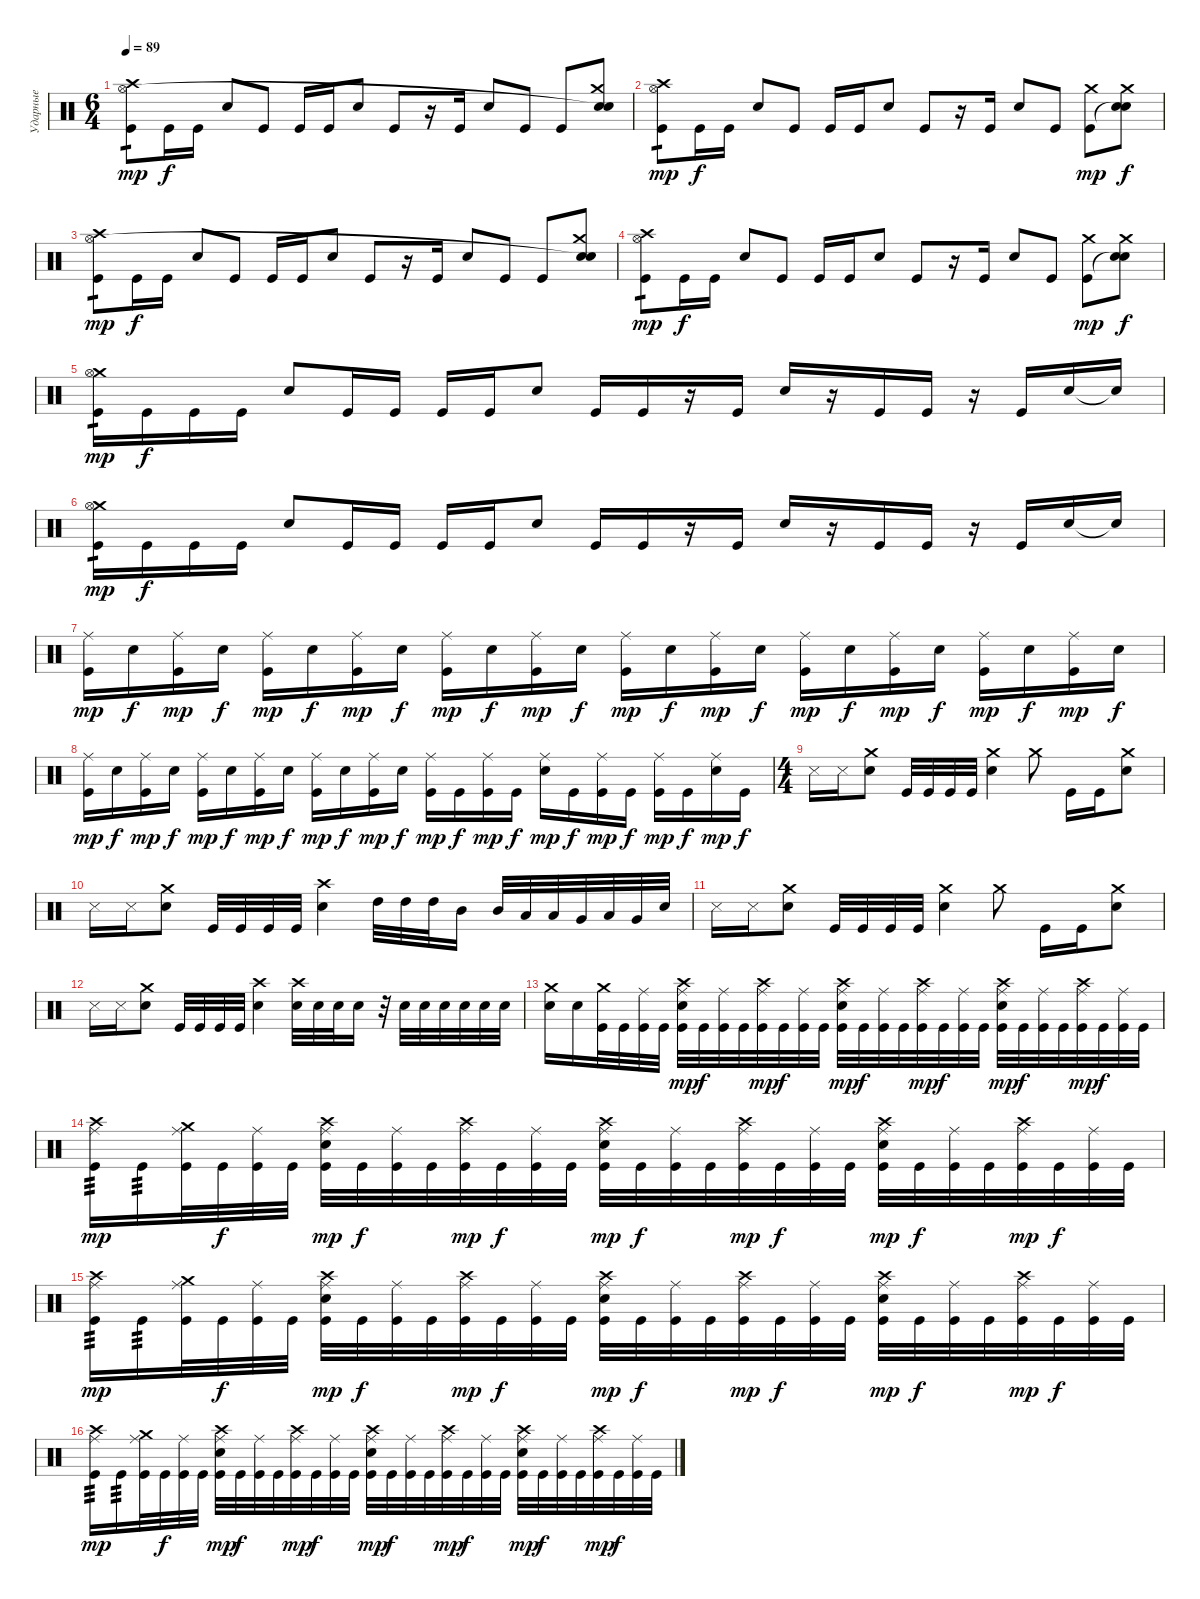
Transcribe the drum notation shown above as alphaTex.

\track ("Ударные" "Ударные") {instrument percussion}
\staff {score}
\articulation defaults
\ts (6 4)
\tempo 89
\clef neutral
\ks c
("Crash high (hit)" "Hi-Hat (open)" "Kick (hit)").8{tp 1 dy mp} "Kick (hit)".16{dy f} "Kick (hit)".16 "Electric Snare (hit)".8 "Kick (hit)".8 "Kick (hit)".16 "Kick (hit)".16 "Electric Snare (hit)".8 "Kick (hit)".8 r.16 "Kick (hit)".16 "Electric Snare (hit)".8 "Kick (hit)".8 "Kick (hit)".8 ("Crash medium (hit)" "Snare (hit)"{t} "Electric Snare (hit)").8 |
("Crash high (hit)" "Hi-Hat (open)" "Kick (hit)").8{tp 1 dy mp} "Kick (hit)".16{dy f} "Kick (hit)".16 "Electric Snare (hit)".8 "Kick (hit)".8 "Kick (hit)".16 "Kick (hit)".16 "Electric Snare (hit)".8 "Kick (hit)".8 r.16 "Kick (hit)".16 "Electric Snare (hit)".8 "Kick (hit)".8 ("Crash medium (hit)" "Kick (hit)").8{dy mp} ("Crash medium (hit)" "Snare (hit)"{t} "Electric Snare (hit)").8{dy f} |
("Crash high (hit)" "Hi-Hat (open)" "Kick (hit)").8{tp 1 dy mp} "Kick (hit)".16{dy f} "Kick (hit)".16 "Electric Snare (hit)".8 "Kick (hit)".8 "Kick (hit)".16 "Kick (hit)".16 "Electric Snare (hit)".8 "Kick (hit)".8 r.16 "Kick (hit)".16 "Electric Snare (hit)".8 "Kick (hit)".8 "Kick (hit)".8 ("Crash medium (hit)" "Snare (hit)"{t} "Electric Snare (hit)").8 |
("Crash high (hit)" "Hi-Hat (open)" "Kick (hit)").8{tp 1 dy mp} "Kick (hit)".16{dy f} "Kick (hit)".16 "Electric Snare (hit)".8 "Kick (hit)".8 "Kick (hit)".16 "Kick (hit)".16 "Electric Snare (hit)".8 "Kick (hit)".8 r.16 "Kick (hit)".16 "Electric Snare (hit)".8 "Kick (hit)".8 ("Crash medium (hit)" "Kick (hit)").8{dy mp} ("Crash medium (hit)" "Snare (hit)"{t} "Electric Snare (hit)").8{dy f} |
("Crash medium (hit)" "Hi-Hat (open)" "Kick (hit)").16{tp 1 dy mp} "Kick (hit)".16{dy f} "Kick (hit)".16 "Kick (hit)".16 "Electric Snare (hit)".8 "Kick (hit)".16 "Kick (hit)".16 "Kick (hit)".16 "Kick (hit)".16 "Electric Snare (hit)".8 "Kick (hit)".16 "Kick (hit)".16 r.16 "Kick (hit)".16 "Electric Snare (hit)".16 r.16 "Kick (hit)".16 "Kick (hit)".16 r.16 "Kick (hit)".16 "Electric Snare (hit)".16 "Snare (hit)"{t}.16 |
("Crash medium (hit)" "Hi-Hat (open)" "Kick (hit)").16{tp 1 dy mp} "Kick (hit)".16{dy f} "Kick (hit)".16 "Kick (hit)".16 "Electric Snare (hit)".8 "Kick (hit)".16 "Kick (hit)".16 "Kick (hit)".16 "Kick (hit)".16 "Electric Snare (hit)".8 "Kick (hit)".16 "Kick (hit)".16 r.16 "Kick (hit)".16 "Electric Snare (hit)".16 r.16 "Kick (hit)".16 "Kick (hit)".16 r.16 "Kick (hit)".16 "Electric Snare (hit)".16 "Snare (hit)"{t}.16 |
("Ride (middle)" "Kick (hit)").16{dy mp} "Electric Snare (hit)".16{dy f} ("Ride (middle)" "Kick (hit)").16{dy mp} "Electric Snare (hit)".16{dy f} ("Ride (middle)" "Kick (hit)").16{dy mp} "Electric Snare (hit)".16{dy f} ("Ride (middle)" "Kick (hit)").16{dy mp} "Electric Snare (hit)".16{dy f} ("Ride (middle)" "Kick (hit)").16{dy mp} "Electric Snare (hit)".16{dy f} ("Ride (middle)" "Kick (hit)").16{dy mp} "Electric Snare (hit)".16{dy f} ("Ride (middle)" "Kick (hit)").16{dy mp} "Electric Snare (hit)".16{dy f} ("Ride (middle)" "Kick (hit)").16{dy mp} "Electric Snare (hit)".16{dy f} ("Ride (middle)" "Kick (hit)").16{dy mp} "Electric Snare (hit)".16{dy f} ("Ride (middle)" "Kick (hit)").16{dy mp} "Electric Snare (hit)".16{dy f} ("Ride (middle)" "Kick (hit)").16{dy mp} "Electric Snare (hit)".16{dy f} ("Ride (middle)" "Kick (hit)").16{dy mp} "Electric Snare (hit)".16{dy f} |
("Ride (middle)" "Kick (hit)").16{dy mp} "Electric Snare (hit)".16{dy f} ("Ride (middle)" "Kick (hit)").16{dy mp} "Electric Snare (hit)".16{dy f} ("Ride (middle)" "Kick (hit)").16{dy mp} "Electric Snare (hit)".16{dy f} ("Ride (middle)" "Kick (hit)").16{dy mp} "Electric Snare (hit)".16{dy f} ("Ride (middle)" "Kick (hit)").16{dy mp} "Electric Snare (hit)".16{dy f} ("Ride (middle)" "Kick (hit)").16{dy mp} "Electric Snare (hit)".16{dy f} ("Ride (middle)" "Kick (hit)").16{dy mp} "Kick (hit)".16{dy f} ("Ride (middle)" "Kick (hit)").16{dy mp} "Kick (hit)".16{dy f} ("Ride (middle)" "Electric Snare (hit)").16{dy mp} "Kick (hit)".16{dy f} ("Ride (middle)" "Kick (hit)").16{dy mp} "Kick (hit)".16{dy f} ("Ride (middle)" "Kick (hit)").16{dy mp} "Kick (hit)".16{dy f} ("Ride (middle)" "Electric Snare (hit)").16{dy mp} "Kick (hit)".16{dy f} |
\ts (4 4)
"Metronome (hit)".16 "Metronome (hit)".16 ("Crash medium (hit)" "Electric Snare (hit)").8 "Kick (hit)".32 "Kick (hit)".32 "Kick (hit)".32 "Kick (hit)".32 ("Crash medium (hit)" "Electric Snare (hit)").4 "Crash medium (hit)".8 "Kick (hit)".16 "Kick (hit)".16 ("Crash medium (hit)" "Electric Snare (hit)").8 |
"Metronome (hit)".16 "Metronome (hit)".16 ("Crash medium (hit)" "Electric Snare (hit)").8 "Kick (hit)".32 "Kick (hit)".32 "Kick (hit)".32 "Kick (hit)".32 ("Crash high (hit)" "Electric Snare (hit)").4 "High Tom (hit)".32 "High Tom (hit)".32 "High Tom (hit)".32 "Mid Tom (hit)".16 "Mid Tom (hit)".32 "Low Tom (hit)".32 "Low Tom (hit)".32 "Very Low Tom (hit)".32 "Low Floor Tom (hit)".32 "Very Low Tom (hit)".32 "Snare (hit)".32 |
"Metronome (hit)".16 "Metronome (hit)".16 ("Crash medium (hit)" "Electric Snare (hit)").8 "Kick (hit)".32 "Kick (hit)".32 "Kick (hit)".32 "Kick (hit)".32 ("Crash medium (hit)" "Electric Snare (hit)").4 "Crash medium (hit)".8 "Kick (hit)".16 "Kick (hit)".16 ("Crash medium (hit)" "Electric Snare (hit)").8 |
"Metronome (hit)".16 "Metronome (hit)".16 ("Crash medium (hit)" "Electric Snare (hit)").8 "Kick (hit)".32 "Kick (hit)".32 "Kick (hit)".32 "Kick (hit)".32 ("Crash high (hit)" "Electric Snare (hit)").4 ("Crash high (hit)" "Electric Snare (hit)").32 "Electric Snare (hit)".32 "Electric Snare (hit)".32 "Electric Snare (hit)".16 r.32 "Electric Snare (hit)".32 "Electric Snare (hit)".32 "Electric Snare (hit)".32 "Electric Snare (hit)".32 "Electric Snare (hit)".32 "Electric Snare (hit)".32 |
("Electric Snare (hit)" "Crash medium (hit)").16 "Electric Snare (hit)".16 ("Crash medium (hit)" "Kick (hit)").32 "Kick (hit)".32 ("Ride (middle)" "Kick (hit)").32 "Kick (hit)".32 ("Crash high (hit)" "Ride (middle)" "Electric Snare (hit)" "Kick (hit)").32{dy mp} "Kick (hit)".32{dy f} ("Ride (middle)" "Kick (hit)").32 "Kick (hit)".32 ("Crash high (hit)" "Ride (middle)" "Kick (hit)").32{dy mp} "Kick (hit)".32{dy f} ("Ride (middle)" "Kick (hit)").32 "Kick (hit)".32 ("Crash high (hit)" "Ride (middle)" "Electric Snare (hit)" "Kick (hit)").32{dy mp} "Kick (hit)".32{dy f} ("Ride (middle)" "Kick (hit)").32 "Kick (hit)".32 ("Crash high (hit)" "Ride (middle)" "Kick (hit)").32{dy mp} "Kick (hit)".32{dy f} ("Ride (middle)" "Kick (hit)").32 "Kick (hit)".32 ("Crash high (hit)" "Ride (middle)" "Electric Snare (hit)" "Kick (hit)").32{dy mp} "Kick (hit)".32{dy f} ("Ride (middle)" "Kick (hit)").32 "Kick (hit)".32 ("Crash high (hit)" "Ride (middle)" "Kick (hit)").32{dy mp} "Kick (hit)".32{dy f} ("Ride (middle)" "Kick (hit)").32 "Kick (hit)".32 |
("Crash high (hit)" "Ride (middle)" "Kick (hit)").16{tp 3 dy mp} "Kick (hit)".16{tp 3} ("Crash medium (hit)" "Ride (middle)" "Kick (hit)").32 "Kick (hit)".32{dy f} ("Ride (middle)" "Kick (hit)").32 "Kick (hit)".32 ("Crash high (hit)" "Ride (middle)" "Electric Snare (hit)" "Kick (hit)").32{dy mp} "Kick (hit)".32{dy f} ("Ride (middle)" "Kick (hit)").32 "Kick (hit)".32 ("Crash high (hit)" "Ride (middle)" "Kick (hit)").32{dy mp} "Kick (hit)".32{dy f} ("Ride (middle)" "Kick (hit)").32 "Kick (hit)".32 ("Crash high (hit)" "Ride (middle)" "Electric Snare (hit)" "Kick (hit)").32{dy mp} "Kick (hit)".32{dy f} ("Ride (middle)" "Kick (hit)").32 "Kick (hit)".32 ("Crash high (hit)" "Ride (middle)" "Kick (hit)").32{dy mp} "Kick (hit)".32{dy f} ("Ride (middle)" "Kick (hit)").32 "Kick (hit)".32 ("Crash high (hit)" "Ride (middle)" "Electric Snare (hit)" "Kick (hit)").32{dy mp} "Kick (hit)".32{dy f} ("Ride (middle)" "Kick (hit)").32 "Kick (hit)".32 ("Crash high (hit)" "Ride (middle)" "Kick (hit)").32{dy mp} "Kick (hit)".32{dy f} ("Ride (middle)" "Kick (hit)").32 "Kick (hit)".32 |
("Crash high (hit)" "Ride (middle)" "Kick (hit)").16{tp 3 dy mp} "Kick (hit)".16{tp 3} ("Crash medium (hit)" "Ride (middle)" "Kick (hit)").32 "Kick (hit)".32{dy f} ("Ride (middle)" "Kick (hit)").32 "Kick (hit)".32 ("Crash high (hit)" "Ride (middle)" "Electric Snare (hit)" "Kick (hit)").32{dy mp} "Kick (hit)".32{dy f} ("Ride (middle)" "Kick (hit)").32 "Kick (hit)".32 ("Crash high (hit)" "Ride (middle)" "Kick (hit)").32{dy mp} "Kick (hit)".32{dy f} ("Ride (middle)" "Kick (hit)").32 "Kick (hit)".32 ("Crash high (hit)" "Ride (middle)" "Electric Snare (hit)" "Kick (hit)").32{dy mp} "Kick (hit)".32{dy f} ("Ride (middle)" "Kick (hit)").32 "Kick (hit)".32 ("Crash high (hit)" "Ride (middle)" "Kick (hit)").32{dy mp} "Kick (hit)".32{dy f} ("Ride (middle)" "Kick (hit)").32 "Kick (hit)".32 ("Crash high (hit)" "Ride (middle)" "Electric Snare (hit)" "Kick (hit)").32{dy mp} "Kick (hit)".32{dy f} ("Ride (middle)" "Kick (hit)").32 "Kick (hit)".32 ("Crash high (hit)" "Ride (middle)" "Kick (hit)").32{dy mp} "Kick (hit)".32{dy f} ("Ride (middle)" "Kick (hit)").32 "Kick (hit)".32 |
("Crash high (hit)" "Ride (middle)" "Kick (hit)").16{tp 3 dy mp} "Kick (hit)".16{tp 3} ("Crash medium (hit)" "Ride (middle)" "Kick (hit)").32 "Kick (hit)".32{dy f} ("Ride (middle)" "Kick (hit)").32 "Kick (hit)".32 ("Crash high (hit)" "Ride (middle)" "Electric Snare (hit)" "Kick (hit)").32{dy mp} "Kick (hit)".32{dy f} ("Ride (middle)" "Kick (hit)").32 "Kick (hit)".32 ("Crash high (hit)" "Ride (middle)" "Kick (hit)").32{dy mp} "Kick (hit)".32{dy f} ("Ride (middle)" "Kick (hit)").32 "Kick (hit)".32 ("Crash high (hit)" "Ride (middle)" "Electric Snare (hit)" "Kick (hit)").32{dy mp} "Kick (hit)".32{dy f} ("Ride (middle)" "Kick (hit)").32 "Kick (hit)".32 ("Crash high (hit)" "Ride (middle)" "Kick (hit)").32{dy mp} "Kick (hit)".32{dy f} ("Ride (middle)" "Kick (hit)").32 "Kick (hit)".32 ("Crash high (hit)" "Ride (middle)" "Electric Snare (hit)" "Kick (hit)").32{dy mp} "Kick (hit)".32{dy f} ("Ride (middle)" "Kick (hit)").32 "Kick (hit)".32 ("Crash high (hit)" "Ride (middle)" "Kick (hit)").32{dy mp} "Kick (hit)".32{dy f} ("Ride (middle)" "Kick (hit)").32 "Kick (hit)".32
